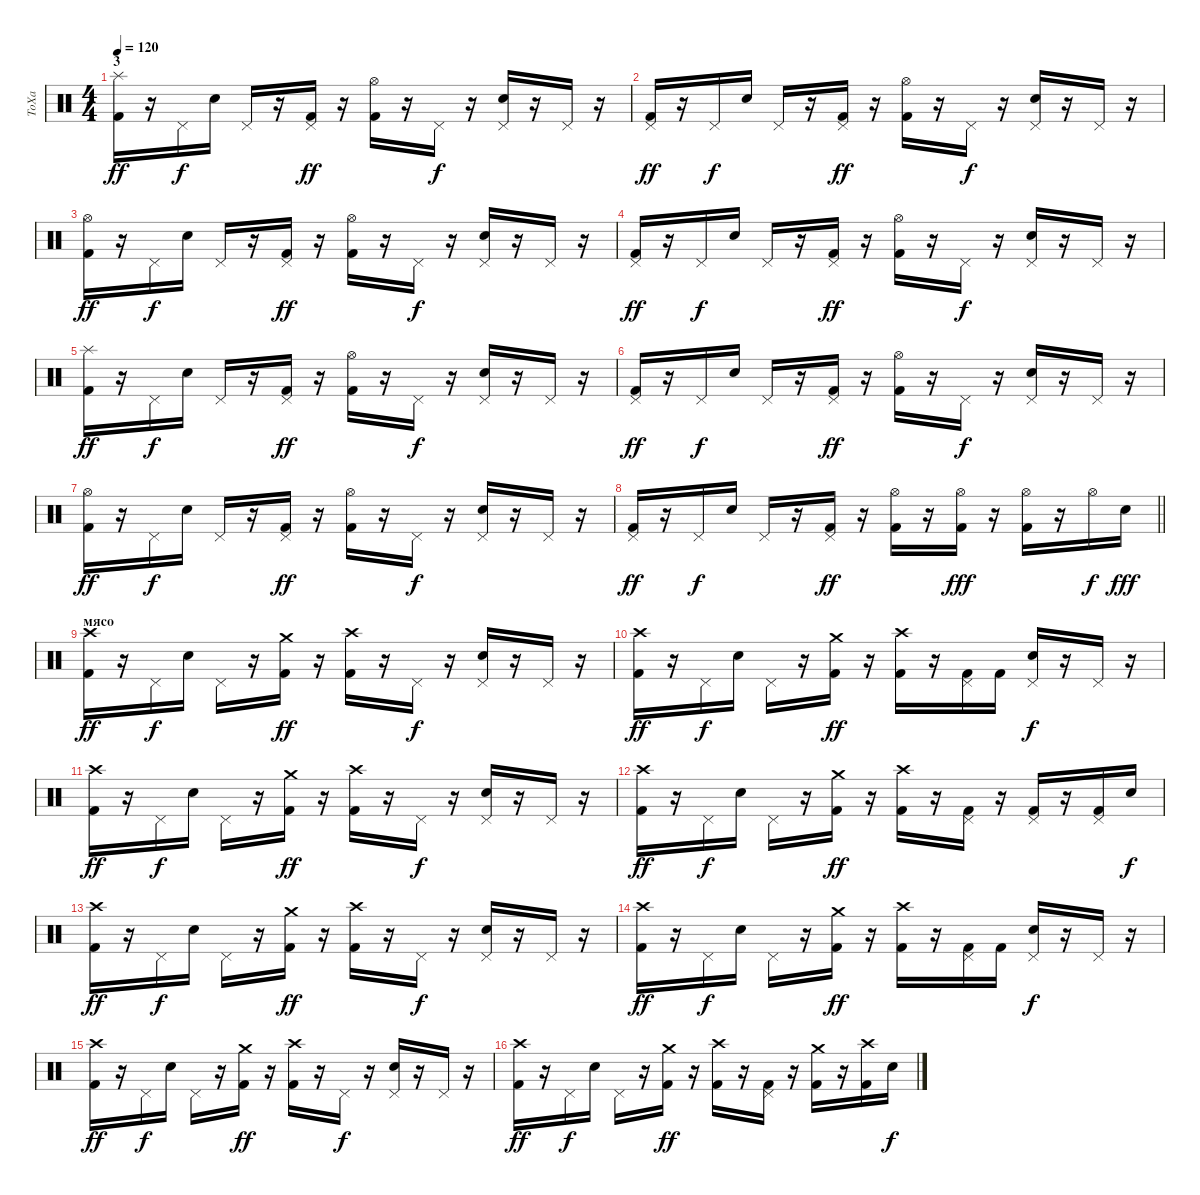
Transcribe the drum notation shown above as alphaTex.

\track ("ТоХа" "ТоХа") {instrument percussion}
\staff {score}
\articulation defaults
\ts (4 4)
\section ("" "3")
\tempo 120
\clef neutral
\ks c
("Splash (hit)" "Kick (hit) 2").16{dy ff} r.16 "Pedal Hi-Hat (hit)".16{dy f} "Electric Snare (hit)".16 "Pedal Hi-Hat (hit)".16 r.16 ("Pedal Hi-Hat (hit)" "Kick (hit) 2").16{dy ff} r.16 ("Hi-Hat (open)" "Kick (hit) 2").16 r.16 "Pedal Hi-Hat (hit)".16{dy f} r.16 ("Pedal Hi-Hat (hit)" "Electric Snare (hit)").16 r.16 "Pedal Hi-Hat (hit)".16 r.16 |
("Pedal Hi-Hat (hit)" "Kick (hit) 2").16{dy ff} r.16 "Pedal Hi-Hat (hit)".16{dy f} "Electric Snare (hit)".16 "Pedal Hi-Hat (hit)".16 r.16 ("Pedal Hi-Hat (hit)" "Kick (hit) 2").16{dy ff} r.16 ("Hi-Hat (open)" "Kick (hit) 2").16 r.16 "Pedal Hi-Hat (hit)".16{dy f} r.16 ("Pedal Hi-Hat (hit)" "Electric Snare (hit)").16 r.16 "Pedal Hi-Hat (hit)".16 r.16 |
("Hi-Hat (open)" "Kick (hit) 2").16{dy ff} r.16 "Pedal Hi-Hat (hit)".16{dy f} "Electric Snare (hit)".16 "Pedal Hi-Hat (hit)".16 r.16 ("Pedal Hi-Hat (hit)" "Kick (hit) 2").16{dy ff} r.16 ("Hi-Hat (open)" "Kick (hit) 2").16 r.16 "Pedal Hi-Hat (hit)".16{dy f} r.16 ("Pedal Hi-Hat (hit)" "Electric Snare (hit)").16 r.16 "Pedal Hi-Hat (hit)".16 r.16 |
("Pedal Hi-Hat (hit)" "Kick (hit) 2").16{dy ff} r.16 "Pedal Hi-Hat (hit)".16{dy f} "Electric Snare (hit)".16 "Pedal Hi-Hat (hit)".16 r.16 ("Pedal Hi-Hat (hit)" "Kick (hit) 2").16{dy ff} r.16 ("Hi-Hat (open)" "Kick (hit) 2").16 r.16 "Pedal Hi-Hat (hit)".16{dy f} r.16 ("Pedal Hi-Hat (hit)" "Electric Snare (hit)").16 r.16 "Pedal Hi-Hat (hit)".16 r.16 |
("Splash (hit)" "Kick (hit) 2").16{dy ff} r.16 "Pedal Hi-Hat (hit)".16{dy f} "Electric Snare (hit)".16 "Pedal Hi-Hat (hit)".16 r.16 ("Pedal Hi-Hat (hit)" "Kick (hit) 2").16{dy ff} r.16 ("Hi-Hat (open)" "Kick (hit) 2").16 r.16 "Pedal Hi-Hat (hit)".16{dy f} r.16 ("Pedal Hi-Hat (hit)" "Electric Snare (hit)").16 r.16 "Pedal Hi-Hat (hit)".16 r.16 |
("Pedal Hi-Hat (hit)" "Kick (hit) 2").16{dy ff} r.16 "Pedal Hi-Hat (hit)".16{dy f} "Electric Snare (hit)".16 "Pedal Hi-Hat (hit)".16 r.16 ("Pedal Hi-Hat (hit)" "Kick (hit) 2").16{dy ff} r.16 ("Hi-Hat (open)" "Kick (hit) 2").16 r.16 "Pedal Hi-Hat (hit)".16{dy f} r.16 ("Pedal Hi-Hat (hit)" "Electric Snare (hit)").16 r.16 "Pedal Hi-Hat (hit)".16 r.16 |
("Hi-Hat (open)" "Kick (hit) 2").16{dy ff} r.16 "Pedal Hi-Hat (hit)".16{dy f} "Electric Snare (hit)".16 "Pedal Hi-Hat (hit)".16 r.16 ("Pedal Hi-Hat (hit)" "Kick (hit) 2").16{dy ff} r.16 ("Hi-Hat (open)" "Kick (hit) 2").16 r.16 "Pedal Hi-Hat (hit)".16{dy f} r.16 ("Pedal Hi-Hat (hit)" "Electric Snare (hit)").16 r.16 "Pedal Hi-Hat (hit)".16 r.16 |
\barLineRight lightlight
("Pedal Hi-Hat (hit)" "Kick (hit) 2").16{dy ff} r.16 "Pedal Hi-Hat (hit)".16{dy f} "Electric Snare (hit)".16 "Pedal Hi-Hat (hit)".16 r.16 ("Pedal Hi-Hat (hit)" "Kick (hit) 2").16{dy ff} r.16 ("Hi-Hat (open)" "Kick (hit) 2").16 r.16 ("Hi-Hat (open)" "Kick (hit) 2").16{dy fff} r.16 ("Hi-Hat (open)" "Kick (hit) 2").16 r.16 "Hi-Hat (open)".16{dy f} "Electric Snare (hit)".16{dy fff} |
\section ("" "мясо")
("Crash high (hit)" "Kick (hit) 2").16{dy ff} r.16 "Pedal Hi-Hat (hit)".16{dy f} "Electric Snare (hit)".16 "Pedal Hi-Hat (hit)".16 r.16 ("Crash medium (hit)" "Kick (hit) 2").16{dy ff} r.16 ("Crash high (hit)" "Kick (hit) 2").16 r.16 "Pedal Hi-Hat (hit)".16{dy f} r.16 ("Pedal Hi-Hat (hit)" "Electric Snare (hit)").16 r.16 "Pedal Hi-Hat (hit)".16 r.16 |
("Crash high (hit)" "Kick (hit) 2").16{dy ff} r.16 "Pedal Hi-Hat (hit)".16{dy f} "Electric Snare (hit)".16 "Pedal Hi-Hat (hit)".16 r.16 ("Crash medium (hit)" "Kick (hit) 2").16{dy ff} r.16 ("Crash high (hit)" "Kick (hit) 2").16 r.16 ("Pedal Hi-Hat (hit)" "Kick (hit) 2").16 "Kick (hit) 2".16 ("Pedal Hi-Hat (hit)" "Electric Snare (hit)").16{dy f} r.16 "Pedal Hi-Hat (hit)".16 r.16 |
("Crash high (hit)" "Kick (hit) 2").16{dy ff} r.16 "Pedal Hi-Hat (hit)".16{dy f} "Electric Snare (hit)".16 "Pedal Hi-Hat (hit)".16 r.16 ("Crash medium (hit)" "Kick (hit) 2").16{dy ff} r.16 ("Crash high (hit)" "Kick (hit) 2").16 r.16 "Pedal Hi-Hat (hit)".16{dy f} r.16 ("Pedal Hi-Hat (hit)" "Electric Snare (hit)").16 r.16 "Pedal Hi-Hat (hit)".16 r.16 |
("Crash high (hit)" "Kick (hit) 2").16{dy ff} r.16 "Pedal Hi-Hat (hit)".16{dy f} "Electric Snare (hit)".16 "Pedal Hi-Hat (hit)".16 r.16 ("Crash medium (hit)" "Kick (hit) 2").16{dy ff} r.16 ("Crash high (hit)" "Kick (hit) 2").16 r.16 ("Pedal Hi-Hat (hit)" "Kick (hit) 2").16 r.16 ("Pedal Hi-Hat (hit)" "Kick (hit) 2").16 r.16 ("Pedal Hi-Hat (hit)" "Kick (hit) 2").16 "Electric Snare (hit)".16{dy f} |
("Crash high (hit)" "Kick (hit) 2").16{dy ff} r.16 "Pedal Hi-Hat (hit)".16{dy f} "Electric Snare (hit)".16 "Pedal Hi-Hat (hit)".16 r.16 ("Crash medium (hit)" "Kick (hit) 2").16{dy ff} r.16 ("Crash high (hit)" "Kick (hit) 2").16 r.16 "Pedal Hi-Hat (hit)".16{dy f} r.16 ("Pedal Hi-Hat (hit)" "Electric Snare (hit)").16 r.16 "Pedal Hi-Hat (hit)".16 r.16 |
("Crash high (hit)" "Kick (hit) 2").16{dy ff} r.16 "Pedal Hi-Hat (hit)".16{dy f} "Electric Snare (hit)".16 "Pedal Hi-Hat (hit)".16 r.16 ("Crash medium (hit)" "Kick (hit) 2").16{dy ff} r.16 ("Crash high (hit)" "Kick (hit) 2").16 r.16 ("Pedal Hi-Hat (hit)" "Kick (hit) 2").16 "Kick (hit) 2".16 ("Pedal Hi-Hat (hit)" "Electric Snare (hit)").16{dy f} r.16 "Pedal Hi-Hat (hit)".16 r.16 |
("Crash high (hit)" "Kick (hit) 2").16{dy ff} r.16 "Pedal Hi-Hat (hit)".16{dy f} "Electric Snare (hit)".16 "Pedal Hi-Hat (hit)".16 r.16 ("Crash medium (hit)" "Kick (hit) 2").16{dy ff} r.16 ("Crash high (hit)" "Kick (hit) 2").16 r.16 "Pedal Hi-Hat (hit)".16{dy f} r.16 ("Pedal Hi-Hat (hit)" "Electric Snare (hit)").16 r.16 "Pedal Hi-Hat (hit)".16 r.16 |
("Crash high (hit)" "Kick (hit) 2").16{dy ff} r.16 "Pedal Hi-Hat (hit)".16{dy f} "Electric Snare (hit)".16 "Pedal Hi-Hat (hit)".16 r.16 ("Crash medium (hit)" "Kick (hit) 2").16{dy ff} r.16 ("Crash high (hit)" "Kick (hit) 2").16 r.16 ("Pedal Hi-Hat (hit)" "Kick (hit) 2").16 r.16 ("Crash medium (hit)" "Kick (hit) 2").16 r.16 ("Crash high (hit)" "Kick (hit) 2").16 "Electric Snare (hit)".16{dy f}
